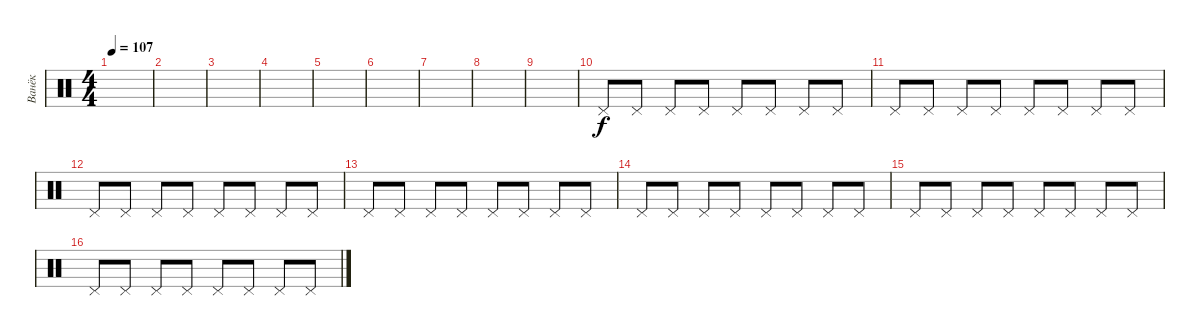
\track ("Ванёк" "Ванёк") {instrument percussion}
\staff {score}
\articulation defaults
\ts (4 4)
\tempo 107
\clef neutral
\ks c
|
|
|
|
|
|
|
|
|
"Pedal Hi-Hat (hit)".8 "Pedal Hi-Hat (hit)".8 "Pedal Hi-Hat (hit)".8 "Pedal Hi-Hat (hit)".8 "Pedal Hi-Hat (hit)".8 "Pedal Hi-Hat (hit)".8 "Pedal Hi-Hat (hit)".8 "Pedal Hi-Hat (hit)".8 |
"Pedal Hi-Hat (hit)".8 "Pedal Hi-Hat (hit)".8 "Pedal Hi-Hat (hit)".8 "Pedal Hi-Hat (hit)".8 "Pedal Hi-Hat (hit)".8 "Pedal Hi-Hat (hit)".8 "Pedal Hi-Hat (hit)".8 "Pedal Hi-Hat (hit)".8 |
"Pedal Hi-Hat (hit)".8 "Pedal Hi-Hat (hit)".8 "Pedal Hi-Hat (hit)".8 "Pedal Hi-Hat (hit)".8 "Pedal Hi-Hat (hit)".8 "Pedal Hi-Hat (hit)".8 "Pedal Hi-Hat (hit)".8 "Pedal Hi-Hat (hit)".8 |
"Pedal Hi-Hat (hit)".8 "Pedal Hi-Hat (hit)".8 "Pedal Hi-Hat (hit)".8 "Pedal Hi-Hat (hit)".8 "Pedal Hi-Hat (hit)".8 "Pedal Hi-Hat (hit)".8 "Pedal Hi-Hat (hit)".8 "Pedal Hi-Hat (hit)".8 |
"Pedal Hi-Hat (hit)".8 "Pedal Hi-Hat (hit)".8 "Pedal Hi-Hat (hit)".8 "Pedal Hi-Hat (hit)".8 "Pedal Hi-Hat (hit)".8 "Pedal Hi-Hat (hit)".8 "Pedal Hi-Hat (hit)".8 "Pedal Hi-Hat (hit)".8 |
"Pedal Hi-Hat (hit)".8 "Pedal Hi-Hat (hit)".8 "Pedal Hi-Hat (hit)".8 "Pedal Hi-Hat (hit)".8 "Pedal Hi-Hat (hit)".8 "Pedal Hi-Hat (hit)".8 "Pedal Hi-Hat (hit)".8 "Pedal Hi-Hat (hit)".8 |
"Pedal Hi-Hat (hit)".8 "Pedal Hi-Hat (hit)".8 "Pedal Hi-Hat (hit)".8 "Pedal Hi-Hat (hit)".8 "Pedal Hi-Hat (hit)".8 "Pedal Hi-Hat (hit)".8 "Pedal Hi-Hat (hit)".8 "Pedal Hi-Hat (hit)".8
